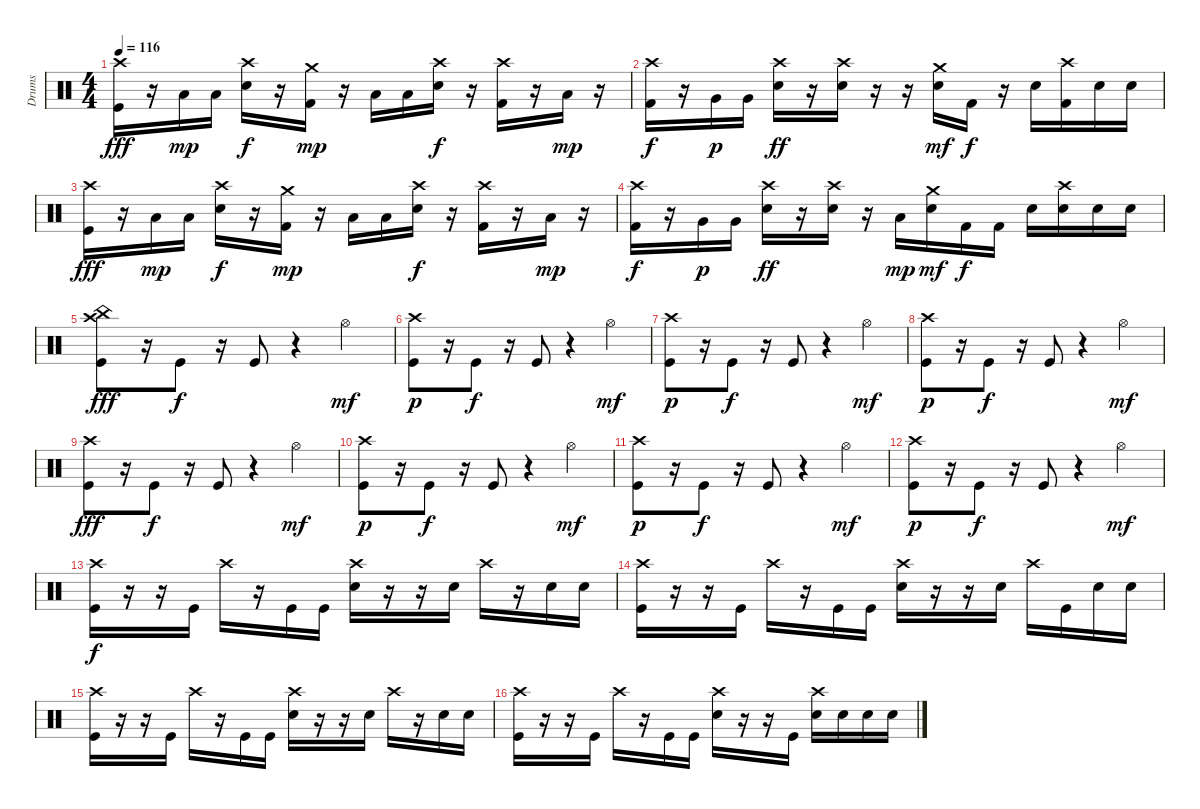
\track ("Drums" "Drums") {instrument percussion}
\staff {score}
\articulation defaults
\ts (4 4)
\tempo 116
\clef neutral
\ks c
("Crash high (hit)" "Kick (hit)").16{dy fff} r.16 "Low Tom (hit)".16{dy mp} "Low Tom (hit)".16 ("Crash high (hit)" "Snare (hit) 2").16{dy f} r.16 ("Crash medium (hit)" "Kick (hit) 2").16{dy mp} r.16 "Low Tom (hit)".16 "Low Tom (hit)".16 ("Crash high (hit)" "Snare (hit) 2").16{dy f} r.16 ("Crash high (hit)" "Kick (hit) 2").16 r.16 "Low Tom (hit)".16{dy mp} r.16 |
("Crash high (hit)" "Kick (hit) 2").16{dy f} r.16 "Very Low Tom (hit)".16{dy p} "Very Low Tom (hit)".16 ("Crash high (hit)" "Snare (hit) 2").16{dy ff} r.16 ("Crash high (hit)" "Snare (hit) 2").16 r.16 r.16 ("Crash medium (hit)" "Snare (hit) 2").16{dy mf} "Kick (hit) 2".16{dy f} r.16 "Snare (hit) 2".16 ("Crash high (hit)" "Kick (hit) 2").16 "Snare (hit) 2".16 "Snare (hit) 2".16 |
("Crash high (hit)" "Kick (hit)").16{dy fff} r.16 "Low Tom (hit)".16{dy mp} "Low Tom (hit)".16 ("Crash high (hit)" "Snare (hit) 2").16{dy f} r.16 ("Crash medium (hit)" "Kick (hit) 2").16{dy mp} r.16 "Low Tom (hit)".16 "Low Tom (hit)".16 ("Crash high (hit)" "Snare (hit) 2").16{dy f} r.16 ("Crash high (hit)" "Kick (hit) 2").16 r.16 "Low Tom (hit)".16{dy mp} r.16 |
("Crash high (hit)" "Kick (hit) 2").16{dy f} r.16 "Very Low Tom (hit)".16{dy p} "Very Low Tom (hit)".16 ("Crash high (hit)" "Snare (hit) 2").16{dy ff} r.16 ("Crash high (hit)" "Snare (hit) 2").16 r.16 "Low Tom (hit)".16{dy mp} ("Crash medium (hit)" "Snare (hit) 2").16{dy mf} "Kick (hit) 2".16{dy f} "Kick (hit) 2".16 "Snare (hit) 2".16 ("Crash high (hit)" "Snare (hit) 2").16 "Snare (hit) 2".16 "Snare (hit) 2".16 |
("Crash high (hit)" "China (hit)" "Kick (hit)").8{dy fff} r.16 "Kick (hit)".8{dy f} r.16 "Kick (hit)".8 r.4 "Hi-Hat (open)".4{dy mf} |
("Crash high (hit)" "Kick (hit)").8{dy p} r.16 "Kick (hit)".8{dy f} r.16 "Kick (hit)".8 r.4 "Hi-Hat (open)".4{dy mf} |
("Crash high (hit)" "Kick (hit)").8{dy p} r.16 "Kick (hit)".8{dy f} r.16 "Kick (hit)".8 r.4 "Hi-Hat (open)".4{dy mf} |
("Crash high (hit)" "Kick (hit)").8{dy p} r.16 "Kick (hit)".8{dy f} r.16 "Kick (hit)".8 r.4 "Hi-Hat (open)".4{dy mf} |
("Crash high (hit)" "Kick (hit)").8{dy fff} r.16 "Kick (hit)".8{dy f} r.16 "Kick (hit)".8 r.4 "Hi-Hat (open)".4{dy mf} |
("Crash high (hit)" "Kick (hit)").8{dy p} r.16 "Kick (hit)".8{dy f} r.16 "Kick (hit)".8 r.4 "Hi-Hat (open)".4{dy mf} |
("Crash high (hit)" "Kick (hit)").8{dy p} r.16 "Kick (hit)".8{dy f} r.16 "Kick (hit)".8 r.4 "Hi-Hat (open)".4{dy mf} |
("Crash high (hit)" "Kick (hit)").8{dy p} r.16 "Kick (hit)".8{dy f} r.16 "Kick (hit)".8 r.4 "Hi-Hat (open)".4{dy mf} |
("Crash high (hit)" "Kick (hit)").16{dy f} r.16 r.16 "Kick (hit)".16 "Crash high (hit)".16 r.16 "Kick (hit)".16 "Kick (hit)".16 ("Crash high (hit)" "Snare (hit) 2").16 r.16 r.16 "Snare (hit) 2".16 "Crash high (hit)".16 r.16 "Snare (hit) 2".16 "Snare (hit) 2".16 |
("Crash high (hit)" "Kick (hit)").16 r.16 r.16 "Kick (hit)".16 "Crash high (hit)".16 r.16 "Kick (hit)".16 "Kick (hit)".16 ("Crash high (hit)" "Snare (hit) 2").16 r.16 r.16 "Snare (hit) 2".16 "Crash high (hit)".16 "Kick (hit)".16 "Snare (hit) 2".16 "Snare (hit) 2".16 |
("Crash high (hit)" "Kick (hit)").16 r.16 r.16 "Kick (hit)".16 "Crash high (hit)".16 r.16 "Kick (hit)".16 "Kick (hit)".16 ("Crash high (hit)" "Snare (hit) 2").16 r.16 r.16 "Snare (hit) 2".16 "Crash high (hit)".16 r.16 "Snare (hit) 2".16 "Snare (hit) 2".16 |
("Crash high (hit)" "Kick (hit)").16 r.16 r.16 "Kick (hit)".16 "Crash high (hit)".16 r.16 "Kick (hit)".16 "Kick (hit)".16 ("Crash high (hit)" "Snare (hit) 2").16 r.16 r.16 "Kick (hit)".16 ("Crash high (hit)" "Snare (hit) 2").16 "Snare (hit) 2".16 "Snare (hit) 2".16 "Snare (hit) 2".16
